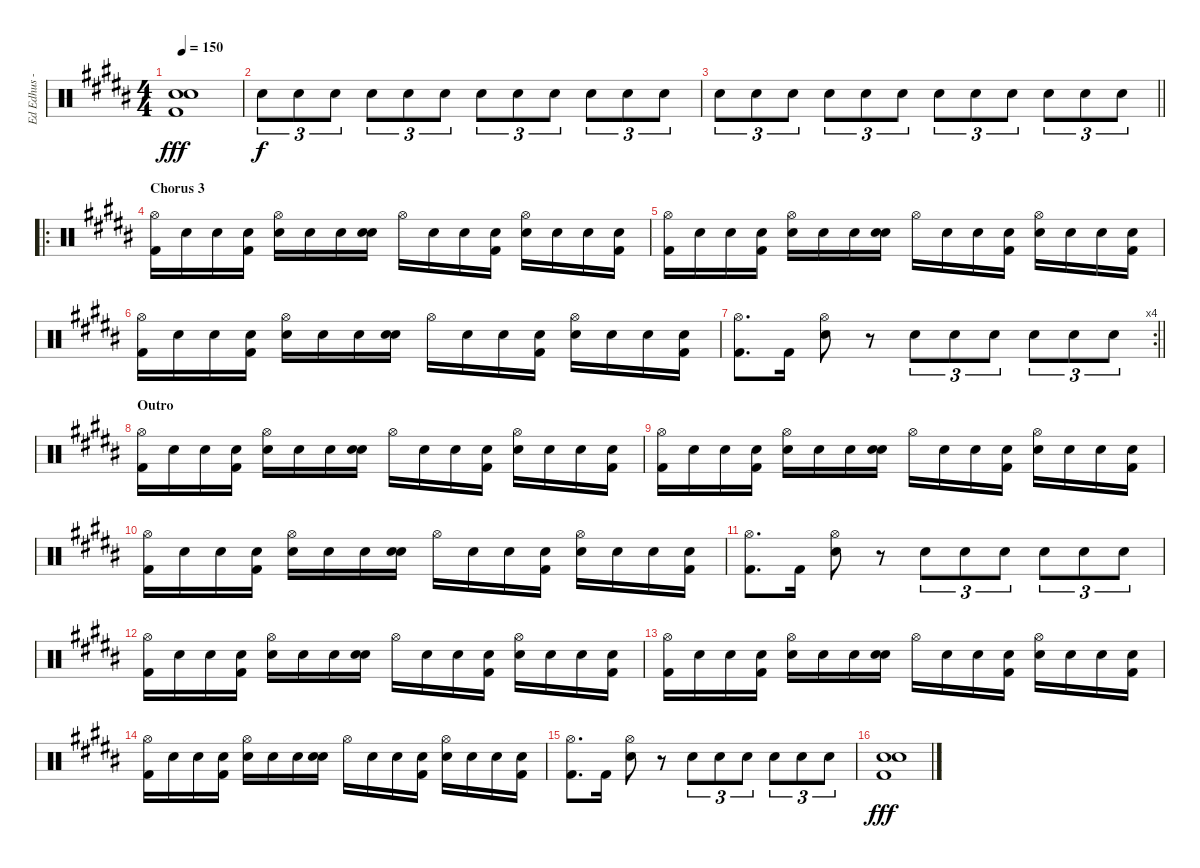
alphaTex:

\track ("Ed Edhus - Drums" "Ed Edhus -") {instrument percussion bank 127}
\staff {score}
\articulation defaults
\ts (4 4)
\tempo 150
\clef neutral
\ks g#minor
("Snare (hit) 2" "Snare (hit) 2" "Kick (hit) 2").1{dy fff} |
"Snare (hit) 2".8{tu (3 2) dy f} "Snare (hit) 2".8{tu (3 2)} "Snare (hit) 2".8{tu (3 2)} "Snare (hit) 2".8{tu (3 2)} "Snare (hit) 2".8{tu (3 2)} "Snare (hit) 2".8{tu (3 2)} "Snare (hit) 2".8{tu (3 2)} "Snare (hit) 2".8{tu (3 2)} "Snare (hit) 2".8{tu (3 2)} "Snare (hit) 2".8{tu (3 2)} "Snare (hit) 2".8{tu (3 2)} "Snare (hit) 2".8{tu (3 2)} |
\barLineRight lightlight "Snare (hit) 2".8{tu (3 2)} "Snare (hit) 2".8{tu (3 2)} "Snare (hit) 2".8{tu (3 2)} "Snare (hit) 2".8{tu (3 2)} "Snare (hit) 2".8{tu (3 2)} "Snare (hit) 2".8{tu (3 2)} "Snare (hit) 2".8{tu (3 2)} "Snare (hit) 2".8{tu (3 2)} "Snare (hit) 2".8{tu (3 2)} "Snare (hit) 2".8{tu (3 2)} "Snare (hit) 2".8{tu (3 2)} "Snare (hit) 2".8{tu (3 2)}
|
\ro
\section ("" "Chorus 3")
("Hi-Hat (open)" "Kick (hit) 2").16 "Snare (hit)".16 "Snare (hit)".16 ("Snare (hit)" "Kick (hit) 2").16 ("Hi-Hat (open)" "Snare (hit) 2").16 "Snare (hit)".16 "Snare (hit)".16 ("Snare (hit)" "Snare (hit) 2").16 "Hi-Hat (open)".16 "Snare (hit)".16 "Snare (hit)".16 ("Snare (hit)" "Kick (hit) 2").16 ("Hi-Hat (open)" "Snare (hit) 2").16 "Snare (hit)".16 "Snare (hit)".16 ("Snare (hit)" "Kick (hit) 2").16 |
("Hi-Hat (open)" "Kick (hit) 2").16 "Snare (hit)".16 "Snare (hit)".16 ("Snare (hit)" "Kick (hit) 2").16 ("Hi-Hat (open)" "Snare (hit) 2").16 "Snare (hit)".16 "Snare (hit)".16 ("Snare (hit)" "Snare (hit) 2").16 "Hi-Hat (open)".16 "Snare (hit)".16 "Snare (hit)".16 ("Snare (hit)" "Kick (hit) 2").16 ("Hi-Hat (open)" "Snare (hit) 2").16 "Snare (hit)".16 "Snare (hit)".16 ("Snare (hit)" "Kick (hit) 2").16 |
("Hi-Hat (open)" "Kick (hit) 2").16 "Snare (hit)".16 "Snare (hit)".16 ("Snare (hit)" "Kick (hit) 2").16 ("Hi-Hat (open)" "Snare (hit) 2").16 "Snare (hit)".16 "Snare (hit)".16 ("Snare (hit)" "Snare (hit) 2").16 "Hi-Hat (open)".16 "Snare (hit)".16 "Snare (hit)".16 ("Snare (hit)" "Kick (hit) 2").16 ("Hi-Hat (open)" "Snare (hit) 2").16 "Snare (hit)".16 "Snare (hit)".16 ("Snare (hit)" "Kick (hit) 2").16 |
\rc 4
\barLineRight lightlight
("Hi-Hat (open)" "Kick (hit) 2").8{d} "Kick (hit) 2".16 ("Hi-Hat (open)" "Snare (hit) 2").8 r.8 "Snare (hit) 2".8{tu (3 2)} "Snare (hit) 2".8{tu (3 2)} "Snare (hit) 2".8{tu (3 2)} "Snare (hit) 2".8{tu (3 2)} "Snare (hit) 2".8{tu (3 2)} "Snare (hit) 2".8{tu (3 2)} |
\section ("" "Outro")
("Hi-Hat (open)" "Kick (hit) 2").16 "Snare (hit)".16 "Snare (hit)".16 ("Snare (hit)" "Kick (hit) 2").16 ("Hi-Hat (open)" "Snare (hit) 2").16 "Snare (hit)".16 "Snare (hit)".16 ("Snare (hit)" "Snare (hit) 2").16 "Hi-Hat (open)".16 "Snare (hit)".16 "Snare (hit)".16 ("Snare (hit)" "Kick (hit) 2").16 ("Hi-Hat (open)" "Snare (hit) 2").16 "Snare (hit)".16 "Snare (hit)".16 ("Snare (hit)" "Kick (hit) 2").16 |
("Hi-Hat (open)" "Kick (hit) 2").16 "Snare (hit)".16 "Snare (hit)".16 ("Snare (hit)" "Kick (hit) 2").16 ("Hi-Hat (open)" "Snare (hit) 2").16 "Snare (hit)".16 "Snare (hit)".16 ("Snare (hit)" "Snare (hit) 2").16 "Hi-Hat (open)".16 "Snare (hit)".16 "Snare (hit)".16 ("Snare (hit)" "Kick (hit) 2").16 ("Hi-Hat (open)" "Snare (hit) 2").16 "Snare (hit)".16 "Snare (hit)".16 ("Snare (hit)" "Kick (hit) 2").16 |
("Hi-Hat (open)" "Kick (hit) 2").16 "Snare (hit)".16 "Snare (hit)".16 ("Snare (hit)" "Kick (hit) 2").16 ("Hi-Hat (open)" "Snare (hit) 2").16 "Snare (hit)".16 "Snare (hit)".16 ("Snare (hit)" "Snare (hit) 2").16 "Hi-Hat (open)".16 "Snare (hit)".16 "Snare (hit)".16 ("Snare (hit)" "Kick (hit) 2").16 ("Hi-Hat (open)" "Snare (hit) 2").16 "Snare (hit)".16 "Snare (hit)".16 ("Snare (hit)" "Kick (hit) 2").16 |
("Hi-Hat (open)" "Kick (hit) 2").8{d} "Kick (hit) 2".16 ("Hi-Hat (open)" "Snare (hit) 2").8 r.8 "Snare (hit) 2".8{tu (3 2)} "Snare (hit) 2".8{tu (3 2)} "Snare (hit) 2".8{tu (3 2)} "Snare (hit) 2".8{tu (3 2)} "Snare (hit) 2".8{tu (3 2)} "Snare (hit) 2".8{tu (3 2)} |
("Hi-Hat (open)" "Kick (hit) 2").16 "Snare (hit)".16 "Snare (hit)".16 ("Snare (hit)" "Kick (hit) 2").16 ("Hi-Hat (open)" "Snare (hit) 2").16 "Snare (hit)".16 "Snare (hit)".16 ("Snare (hit)" "Snare (hit) 2").16 "Hi-Hat (open)".16 "Snare (hit)".16 "Snare (hit)".16 ("Snare (hit)" "Kick (hit) 2").16 ("Hi-Hat (open)" "Snare (hit) 2").16 "Snare (hit)".16 "Snare (hit)".16 ("Snare (hit)" "Kick (hit) 2").16 |
("Hi-Hat (open)" "Kick (hit) 2").16 "Snare (hit)".16 "Snare (hit)".16 ("Snare (hit)" "Kick (hit) 2").16 ("Hi-Hat (open)" "Snare (hit) 2").16 "Snare (hit)".16 "Snare (hit)".16 ("Snare (hit)" "Snare (hit) 2").16 "Hi-Hat (open)".16 "Snare (hit)".16 "Snare (hit)".16 ("Snare (hit)" "Kick (hit) 2").16 ("Hi-Hat (open)" "Snare (hit) 2").16 "Snare (hit)".16 "Snare (hit)".16 ("Snare (hit)" "Kick (hit) 2").16 |
("Hi-Hat (open)" "Kick (hit) 2").16 "Snare (hit)".16 "Snare (hit)".16 ("Snare (hit)" "Kick (hit) 2").16 ("Hi-Hat (open)" "Snare (hit) 2").16 "Snare (hit)".16 "Snare (hit)".16 ("Snare (hit)" "Snare (hit) 2").16 "Hi-Hat (open)".16 "Snare (hit)".16 "Snare (hit)".16 ("Snare (hit)" "Kick (hit) 2").16 ("Hi-Hat (open)" "Snare (hit) 2").16 "Snare (hit)".16 "Snare (hit)".16 ("Snare (hit)" "Kick (hit) 2").16 |
("Hi-Hat (open)" "Kick (hit) 2").8{d} "Kick (hit) 2".16 ("Hi-Hat (open)" "Snare (hit) 2").8 r.8 "Snare (hit) 2".8{tu (3 2)} "Snare (hit) 2".8{tu (3 2)} "Snare (hit) 2".8{tu (3 2)} "Snare (hit) 2".8{tu (3 2)} "Snare (hit) 2".8{tu (3 2)} "Snare (hit) 2".8{tu (3 2)} |
("Snare (hit) 2" "Snare (hit) 2" "Kick (hit) 2").1{dy fff}
